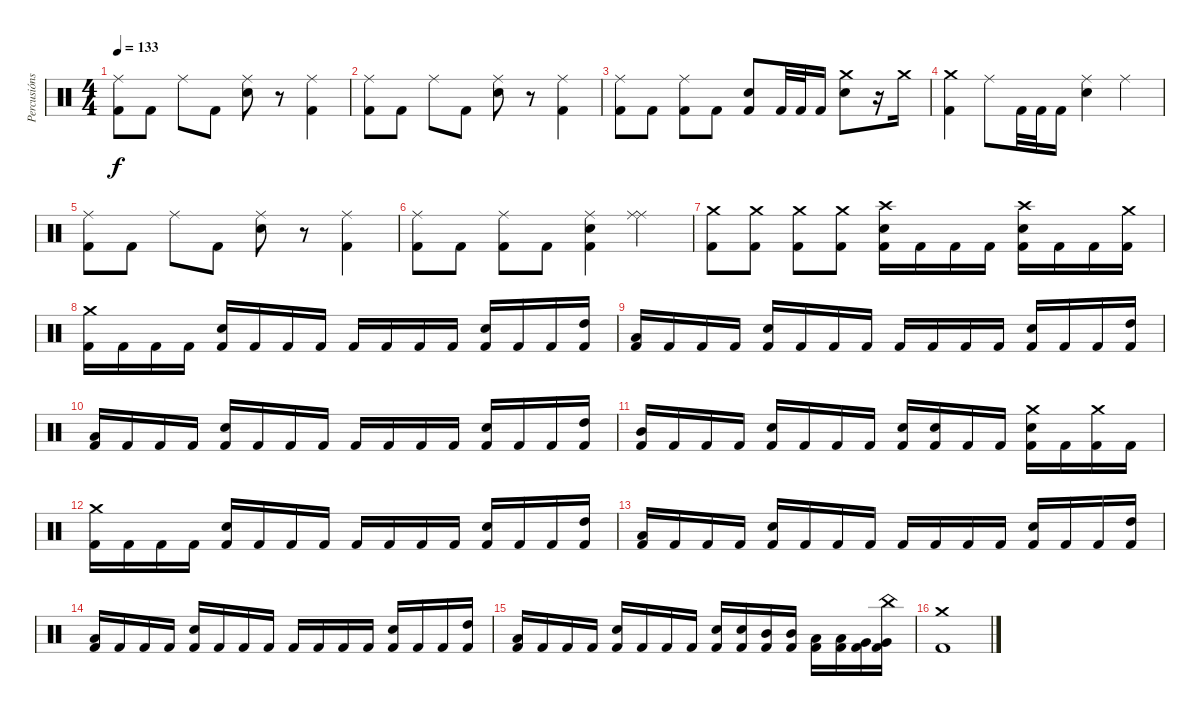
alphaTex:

\track ("Percusións" "Percusións") {instrument percussion}
\staff {score}
\articulation defaults
\ts (4 4)
\tempo 133
\clef neutral
\ks c
("Ride (middle)" "Kick (hit) 2").8{dy f} "Kick (hit) 2".8 "Ride (middle)".8 "Kick (hit) 2".8 ("Ride (middle)" "Snare (hit) 2").8 r.8 ("Ride (middle)" "Kick (hit) 2").4 |
("Ride (middle)" "Kick (hit) 2").8 "Kick (hit) 2".8 "Ride (middle)".8 "Kick (hit) 2".8 ("Ride (middle)" "Snare (hit) 2").8 r.8 ("Ride (middle)" "Kick (hit) 2").4 |
("Ride (middle)" "Kick (hit) 2").8 "Kick (hit) 2".8 ("Ride (middle)" "Kick (hit) 2").8 "Kick (hit) 2".8 ("Snare (hit) 2" "Kick (hit) 2").8 "Kick (hit) 2".32 "Kick (hit) 2".32 "Kick (hit) 2".16 ("Crash medium (hit)" "Snare (hit) 2").8 r.16 "Crash medium (hit)".16 |
("Crash medium (hit)" "Kick (hit) 2").4 "Ride (middle)".8 "Kick (hit) 2".32 "Kick (hit) 2".32 "Kick (hit) 2".16 ("Ride (middle)" "Snare (hit) 2").4 "Ride (middle)".4 |
("Ride (middle)" "Kick (hit) 2").8 "Kick (hit) 2".8 "Ride (middle)".8 "Kick (hit) 2".8 ("Ride (middle)" "Snare (hit) 2").8 r.8 ("Ride (middle)" "Kick (hit) 2").4 |
("Ride (middle)" "Kick (hit) 2").8 "Kick (hit) 2".8 ("Ride (middle)" "Kick (hit) 2").8 "Kick (hit) 2".8 ("Ride (middle)" "Snare (hit) 2" "Kick (hit) 2").4 ("Ride (middle)" "Ride (middle)").4 |
("Crash medium (hit)" "Kick (hit) 2").8 ("Crash medium (hit)" "Kick (hit) 2").8 ("Crash medium (hit)" "Kick (hit) 2").8 ("Crash medium (hit)" "Kick (hit) 2").8 ("Crash high (hit)" "Kick (hit) 2" "Snare (hit) 2").16 "Kick (hit) 2".16 "Kick (hit) 2".16 "Kick (hit) 2".16 ("Crash high (hit)" "Kick (hit) 2" "Snare (hit) 2").16 "Kick (hit) 2".16 "Kick (hit) 2".16 ("Crash medium (hit)" "Kick (hit) 2").16 |
("Crash medium (hit)" "Kick (hit) 2").16 "Kick (hit) 2".16 "Kick (hit) 2".16 "Kick (hit) 2".16 ("Snare (hit) 2" "Kick (hit) 2").16 "Kick (hit) 2".16 "Kick (hit) 2".16 "Kick (hit) 2".16 "Kick (hit) 2".16 "Kick (hit) 2".16 "Kick (hit) 2".16 "Kick (hit) 2".16 ("Snare (hit) 2" "Kick (hit) 2").16 "Kick (hit) 2".16 "Kick (hit) 2".16 ("High Tom (hit)" "Kick (hit) 2").16 |
("Kick (hit) 2" "Low Tom (hit)").16 "Kick (hit) 2".16 "Kick (hit) 2".16 "Kick (hit) 2".16 ("Snare (hit) 2" "Kick (hit) 2").16 "Kick (hit) 2".16 "Kick (hit) 2".16 "Kick (hit) 2".16 "Kick (hit) 2".16 "Kick (hit) 2".16 "Kick (hit) 2".16 "Kick (hit) 2".16 ("Snare (hit) 2" "Kick (hit) 2").16 "Kick (hit) 2".16 "Kick (hit) 2".16 ("High Tom (hit)" "Kick (hit) 2").16 |
("Kick (hit) 2" "Low Tom (hit)").16 "Kick (hit) 2".16 "Kick (hit) 2".16 "Kick (hit) 2".16 ("Snare (hit) 2" "Kick (hit) 2").16 "Kick (hit) 2".16 "Kick (hit) 2".16 "Kick (hit) 2".16 "Kick (hit) 2".16 "Kick (hit) 2".16 "Kick (hit) 2".16 "Kick (hit) 2".16 ("Snare (hit) 2" "Kick (hit) 2").16 "Kick (hit) 2".16 "Kick (hit) 2".16 ("High Tom (hit)" "Kick (hit) 2").16 |
("Mid Tom (hit)" "Kick (hit) 2").16 "Kick (hit) 2".16 "Kick (hit) 2".16 "Kick (hit) 2".16 ("Kick (hit) 2" "Snare (hit) 2").16 "Kick (hit) 2".16 "Kick (hit) 2".16 "Kick (hit) 2".16 ("Snare (hit) 2" "Kick (hit) 2").16 ("Snare (hit) 2" "Kick (hit) 2").16 "Kick (hit) 2".16 "Kick (hit) 2".16 ("Crash medium (hit)" "Snare (hit) 2" "Kick (hit) 2").16 "Kick (hit) 2".16 ("Crash medium (hit)" "Kick (hit) 2").16 "Kick (hit) 2".16 |
("Crash medium (hit)" "Kick (hit) 2").16 "Kick (hit) 2".16 "Kick (hit) 2".16 "Kick (hit) 2".16 ("Snare (hit) 2" "Kick (hit) 2").16 "Kick (hit) 2".16 "Kick (hit) 2".16 "Kick (hit) 2".16 "Kick (hit) 2".16 "Kick (hit) 2".16 "Kick (hit) 2".16 "Kick (hit) 2".16 ("Snare (hit) 2" "Kick (hit) 2").16 "Kick (hit) 2".16 "Kick (hit) 2".16 ("High Tom (hit)" "Kick (hit) 2").16 |
("Kick (hit) 2" "Low Tom (hit)").16 "Kick (hit) 2".16 "Kick (hit) 2".16 "Kick (hit) 2".16 ("Snare (hit) 2" "Kick (hit) 2").16 "Kick (hit) 2".16 "Kick (hit) 2".16 "Kick (hit) 2".16 "Kick (hit) 2".16 "Kick (hit) 2".16 "Kick (hit) 2".16 "Kick (hit) 2".16 ("Snare (hit) 2" "Kick (hit) 2").16 "Kick (hit) 2".16 "Kick (hit) 2".16 ("High Tom (hit)" "Kick (hit) 2").16 |
("Kick (hit) 2" "Low Tom (hit)").16 "Kick (hit) 2".16 "Kick (hit) 2".16 "Kick (hit) 2".16 ("Snare (hit) 2" "Kick (hit) 2").16 "Kick (hit) 2".16 "Kick (hit) 2".16 "Kick (hit) 2".16 "Kick (hit) 2".16 "Kick (hit) 2".16 "Kick (hit) 2".16 "Kick (hit) 2".16 ("Snare (hit) 2" "Kick (hit) 2").16 "Kick (hit) 2".16 "Kick (hit) 2".16 ("High Tom (hit)" "Kick (hit) 2").16 |
("Kick (hit) 2" "Low Tom (hit)").16 "Kick (hit) 2".16 "Kick (hit) 2".16 "Kick (hit) 2".16 ("Snare (hit) 2" "Kick (hit) 2").16 "Kick (hit) 2".16 "Kick (hit) 2".16 "Kick (hit) 2".16 ("Snare (hit) 2" "Kick (hit) 2").16 ("Snare (hit) 2" "Kick (hit) 2").16 ("Mid Tom (hit)" "Kick (hit) 2").16 ("Mid Tom (hit)" "Kick (hit) 2").16 ("Low Tom (hit)" "Kick (hit) 2").16 ("Low Tom (hit)" "Kick (hit) 2").16 ("Very Low Tom (hit)" "Kick (hit) 2").16 ("China (hit)" "Very Low Tom (hit)" "Kick (hit) 2").16 |
("Crash medium (hit)" "Kick (hit) 2").1
